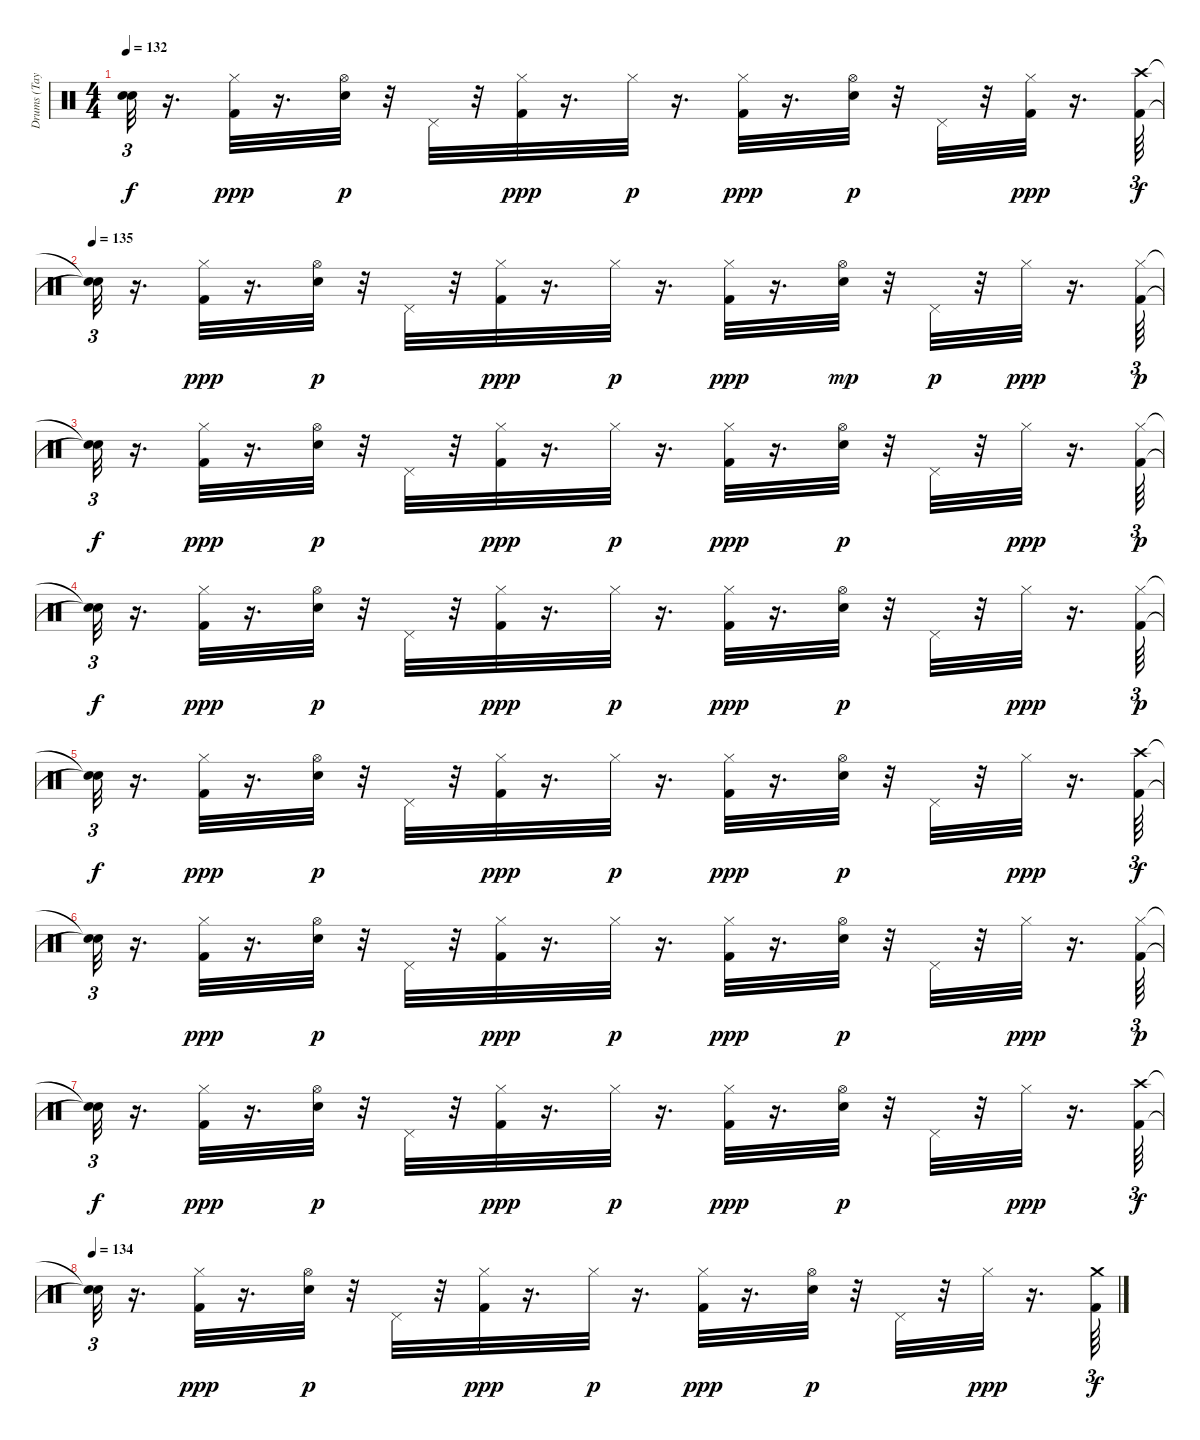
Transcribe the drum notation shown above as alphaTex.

\track ("Drums (Taylor)" "Drums (Tay") {instrument percussion}
\staff {score}
\articulation defaults
\ts (4 4)
\tempo 132
\clef neutral
\ks c
("Snare (hit)"{t} "Snare (hit)"{t}).32{tu (3 2) dy f} r.16{d} ("Kick (hit) 2" "Hi-Hat (closed)").32{dy ppp} r.16{d} ("Snare (hit) 2" "Hi-Hat (open)").32{dy p} r.32 "Pedal Hi-Hat (hit)".32 r.32 ("Kick (hit) 2" "Hi-Hat (closed)").32{dy ppp} r.16{d} "Hi-Hat (closed)".32{dy p} r.16{d} ("Kick (hit) 2" "Hi-Hat (closed)").32{dy ppp} r.16{d} ("Snare (hit) 2" "Hi-Hat (open)").32{dy p} r.32 "Pedal Hi-Hat (hit)".32 r.32 ("Kick (hit) 2" "Hi-Hat (closed)").32{dy ppp} r.16{d} ("Kick (hit) 2" "Crash high (hit)").64{tu (3 2) dy f} |
\tempo 135
("Snare (hit)"{t} "Snare (hit)"{t}).32{tu (3 2)} r.16{d} ("Kick (hit) 2" "Hi-Hat (closed)").32{dy ppp} r.16{d} ("Snare (hit) 2" "Hi-Hat (open)").32{dy p} r.32 "Pedal Hi-Hat (hit)".32 r.32 ("Kick (hit) 2" "Hi-Hat (closed)").32{dy ppp} r.16{d} "Hi-Hat (closed)".32{dy p} r.16{d} ("Kick (hit) 2" "Hi-Hat (closed)").32{dy ppp} r.16{d} ("Hi-Hat (open)" "Snare (hit) 2").32{dy mp} r.32 "Pedal Hi-Hat (hit)".32{dy p} r.32 "Hi-Hat (closed)".32{dy ppp} r.16{d} ("Kick (hit) 2" "Hi-Hat (closed)").64{tu (3 2) dy p} |
("Snare (hit)"{t} "Snare (hit)"{t}).32{tu (3 2) dy f} r.16{d} ("Kick (hit) 2" "Hi-Hat (closed)").32{dy ppp} r.16{d} ("Snare (hit) 2" "Hi-Hat (open)").32{dy p} r.32 "Pedal Hi-Hat (hit)".32 r.32 ("Kick (hit) 2" "Hi-Hat (closed)").32{dy ppp} r.16{d} "Hi-Hat (closed)".32{dy p} r.16{d} ("Kick (hit) 2" "Hi-Hat (closed)").32{dy ppp} r.16{d} ("Snare (hit) 2" "Hi-Hat (open)").32{dy p} r.32 "Pedal Hi-Hat (hit)".32 r.32 "Hi-Hat (closed)".32{dy ppp} r.16{d} ("Kick (hit) 2" "Hi-Hat (closed)").64{tu (3 2) dy p} |
("Snare (hit)"{t} "Snare (hit)"{t}).32{tu (3 2) dy f} r.16{d} ("Kick (hit) 2" "Hi-Hat (closed)").32{dy ppp} r.16{d} ("Snare (hit) 2" "Hi-Hat (open)").32{dy p} r.32 "Pedal Hi-Hat (hit)".32 r.32 ("Kick (hit) 2" "Hi-Hat (closed)").32{dy ppp} r.16{d} "Hi-Hat (closed)".32{dy p} r.16{d} ("Kick (hit) 2" "Hi-Hat (closed)").32{dy ppp} r.16{d} ("Snare (hit) 2" "Hi-Hat (open)").32{dy p} r.32 "Pedal Hi-Hat (hit)".32 r.32 "Hi-Hat (closed)".32{dy ppp} r.16{d} ("Kick (hit) 2" "Hi-Hat (closed)").64{tu (3 2) dy p} |
("Snare (hit)"{t} "Snare (hit)"{t}).32{tu (3 2) dy f} r.16{d} ("Kick (hit) 2" "Hi-Hat (closed)").32{dy ppp} r.16{d} ("Snare (hit) 2" "Hi-Hat (open)").32{dy p} r.32 "Pedal Hi-Hat (hit)".32 r.32 ("Kick (hit) 2" "Hi-Hat (closed)").32{dy ppp} r.16{d} "Hi-Hat (closed)".32{dy p} r.16{d} ("Kick (hit) 2" "Hi-Hat (closed)").32{dy ppp} r.16{d} ("Snare (hit) 2" "Hi-Hat (open)").32{dy p} r.32 "Pedal Hi-Hat (hit)".32 r.32 "Hi-Hat (closed)".32{dy ppp} r.16{d} ("Kick (hit) 2" "Crash high (hit)").64{tu (3 2) dy f} |
("Snare (hit)"{t} "Snare (hit)"{t}).32{tu (3 2)} r.16{d} ("Kick (hit) 2" "Hi-Hat (closed)").32{dy ppp} r.16{d} ("Snare (hit) 2" "Hi-Hat (open)").32{dy p} r.32 "Pedal Hi-Hat (hit)".32 r.32 ("Kick (hit) 2" "Hi-Hat (closed)").32{dy ppp} r.16{d} "Hi-Hat (closed)".32{dy p} r.16{d} ("Kick (hit) 2" "Hi-Hat (closed)").32{dy ppp} r.16{d} ("Snare (hit) 2" "Hi-Hat (open)").32{dy p} r.32 "Pedal Hi-Hat (hit)".32 r.32 "Hi-Hat (closed)".32{dy ppp} r.16{d} ("Kick (hit) 2" "Hi-Hat (closed)").64{tu (3 2) dy p} |
("Snare (hit)"{t} "Snare (hit)"{t}).32{tu (3 2) dy f} r.16{d} ("Kick (hit) 2" "Hi-Hat (closed)").32{dy ppp} r.16{d} ("Snare (hit) 2" "Hi-Hat (open)").32{dy p} r.32 "Pedal Hi-Hat (hit)".32 r.32 ("Kick (hit) 2" "Hi-Hat (closed)").32{dy ppp} r.16{d} "Hi-Hat (closed)".32{dy p} r.16{d} ("Kick (hit) 2" "Hi-Hat (closed)").32{dy ppp} r.16{d} ("Snare (hit) 2" "Hi-Hat (open)").32{dy p} r.32 "Pedal Hi-Hat (hit)".32 r.32 "Hi-Hat (closed)".32{dy ppp} r.16{d} ("Kick (hit) 2" "Crash high (hit)").64{tu (3 2) dy f} |
\tempo 134
("Snare (hit)"{t} "Snare (hit)"{t}).32{tu (3 2)} r.16{d} ("Kick (hit) 2" "Hi-Hat (closed)").32{dy ppp} r.16{d} ("Snare (hit) 2" "Hi-Hat (open)").32{dy p} r.32 "Pedal Hi-Hat (hit)".32 r.32 ("Kick (hit) 2" "Hi-Hat (closed)").32{dy ppp} r.16{d} "Hi-Hat (closed)".32{dy p} r.16{d} ("Kick (hit) 2" "Hi-Hat (closed)").32{dy ppp} r.16{d} ("Snare (hit) 2" "Hi-Hat (open)").32{dy p} r.32 "Pedal Hi-Hat (hit)".32 r.32 "Hi-Hat (closed)".32{dy ppp} r.16{d} ("Kick (hit) 2" "Crash medium (hit)").64{tu (3 2) dy f}
